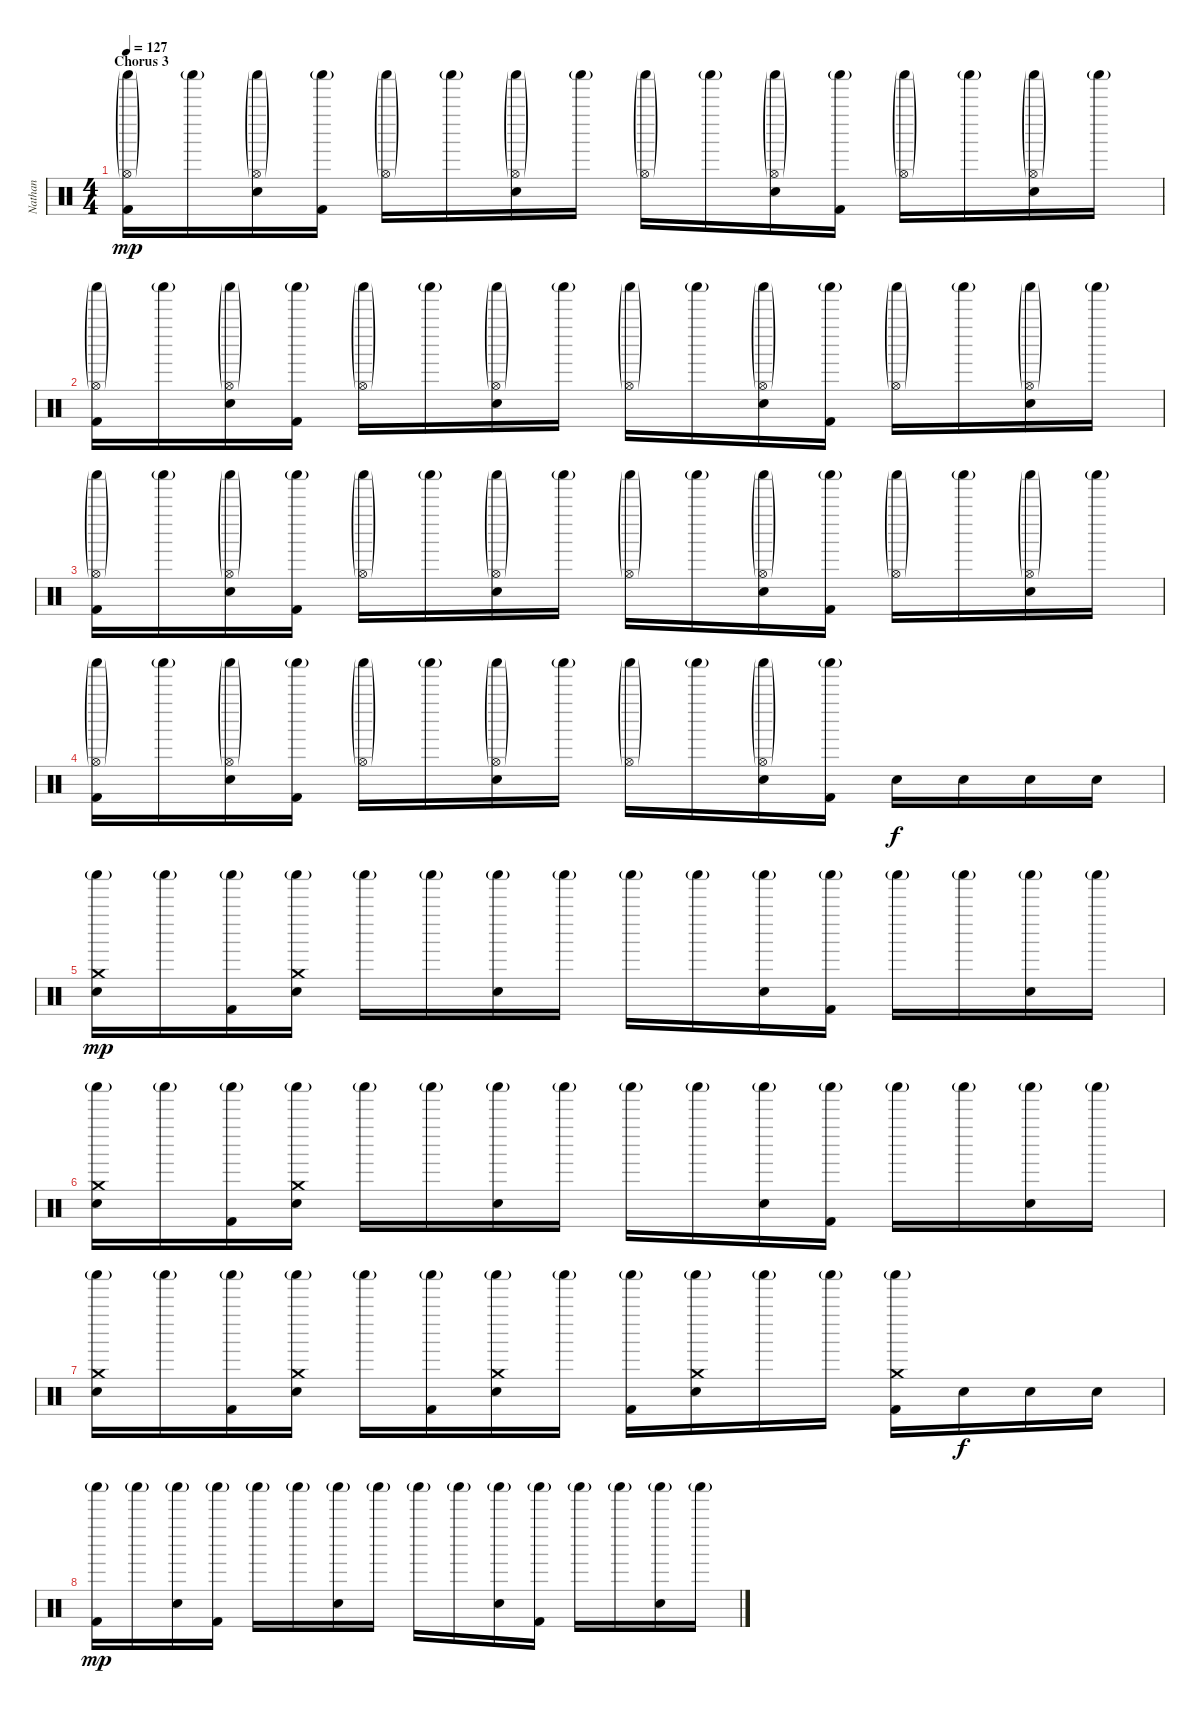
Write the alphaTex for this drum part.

\track ("Nathan" "Nathan") {instrument percussion}
\staff {score}
\articulation defaults
\ts (4 4)
\section ("" "Chorus 3")
\tempo 127
\clef neutral
\ks c
("Shaker (hit)"{g} "Hi-Hat (open)"{g} "Kick (hit) 2").16{dy mp} "Shaker (hit)"{g}.16 ("Shaker (hit)"{g} "Hi-Hat (open)"{g} "Electric Snare (hit)").16 ("Shaker (hit)"{g} "Kick (hit) 2").16 ("Shaker (hit)"{g} "Hi-Hat (open)"{g}).16 "Shaker (hit)"{g}.16 ("Shaker (hit)"{g} "Hi-Hat (open)"{g} "Electric Snare (hit)").16 "Shaker (hit)"{g}.16 ("Shaker (hit)"{g} "Hi-Hat (open)"{g}).16 "Shaker (hit)"{g}.16 ("Shaker (hit)"{g} "Hi-Hat (open)"{g} "Electric Snare (hit)").16 ("Shaker (hit)"{g} "Kick (hit) 2").16 ("Shaker (hit)"{g} "Hi-Hat (open)"{g}).16 "Shaker (hit)"{g}.16 ("Shaker (hit)"{g} "Hi-Hat (open)"{g} "Electric Snare (hit)").16 "Shaker (hit)"{g}.16 |
("Shaker (hit)"{g} "Hi-Hat (open)"{g} "Kick (hit) 2").16 "Shaker (hit)"{g}.16 ("Shaker (hit)"{g} "Hi-Hat (open)"{g} "Electric Snare (hit)").16 ("Shaker (hit)"{g} "Kick (hit) 2").16 ("Shaker (hit)"{g} "Hi-Hat (open)"{g}).16 "Shaker (hit)"{g}.16 ("Shaker (hit)"{g} "Hi-Hat (open)"{g} "Electric Snare (hit)").16 "Shaker (hit)"{g}.16 ("Shaker (hit)"{g} "Hi-Hat (open)"{g}).16 "Shaker (hit)"{g}.16 ("Shaker (hit)"{g} "Hi-Hat (open)"{g} "Electric Snare (hit)").16 ("Shaker (hit)"{g} "Kick (hit) 2").16 ("Shaker (hit)"{g} "Hi-Hat (open)"{g}).16 "Shaker (hit)"{g}.16 ("Shaker (hit)"{g} "Hi-Hat (open)"{g} "Electric Snare (hit)").16 "Shaker (hit)"{g}.16 |
("Shaker (hit)"{g} "Hi-Hat (open)"{g} "Kick (hit) 2").16 "Shaker (hit)"{g}.16 ("Shaker (hit)"{g} "Hi-Hat (open)"{g} "Electric Snare (hit)").16 ("Shaker (hit)"{g} "Kick (hit) 2").16 ("Shaker (hit)"{g} "Hi-Hat (open)"{g}).16 "Shaker (hit)"{g}.16 ("Shaker (hit)"{g} "Hi-Hat (open)"{g} "Electric Snare (hit)").16 "Shaker (hit)"{g}.16 ("Shaker (hit)"{g} "Hi-Hat (open)"{g}).16 "Shaker (hit)"{g}.16 ("Shaker (hit)"{g} "Hi-Hat (open)"{g} "Electric Snare (hit)").16 ("Shaker (hit)"{g} "Kick (hit) 2").16 ("Shaker (hit)"{g} "Hi-Hat (open)"{g}).16 "Shaker (hit)"{g}.16 ("Shaker (hit)"{g} "Hi-Hat (open)"{g} "Electric Snare (hit)").16 "Shaker (hit)"{g}.16 |
("Shaker (hit)"{g} "Hi-Hat (open)"{g} "Kick (hit) 2").16 "Shaker (hit)"{g}.16 ("Shaker (hit)"{g} "Hi-Hat (open)"{g} "Electric Snare (hit)").16 ("Shaker (hit)"{g} "Kick (hit) 2").16 ("Shaker (hit)"{g} "Hi-Hat (open)"{g}).16 "Shaker (hit)"{g}.16 ("Shaker (hit)"{g} "Hi-Hat (open)"{g} "Electric Snare (hit)").16 "Shaker (hit)"{g}.16 ("Shaker (hit)"{g} "Hi-Hat (open)"{g}).16 "Shaker (hit)"{g}.16 ("Shaker (hit)"{g} "Hi-Hat (open)"{g} "Electric Snare (hit)").16 ("Shaker (hit)"{g} "Kick (hit) 2").16 "Electric Snare (hit)".16{dy f} "Electric Snare (hit)".16 "Electric Snare (hit)".16 "Electric Snare (hit)".16 |
("Crash medium (hit)" "Shaker (hit)"{g} "Electric Snare (hit)").16{dy mp} "Shaker (hit)"{g}.16 ("Shaker (hit)"{g} "Kick (hit) 2").16 ("Crash medium (hit)" "Shaker (hit)"{g} "Electric Snare (hit)").16 "Shaker (hit)"{g}.16 "Shaker (hit)"{g}.16 ("Shaker (hit)"{g} "Electric Snare (hit)").16 "Shaker (hit)"{g}.16 "Shaker (hit)"{g}.16 "Shaker (hit)"{g}.16 ("Shaker (hit)"{g} "Electric Snare (hit)").16 ("Shaker (hit)"{g} "Kick (hit) 2").16 "Shaker (hit)"{g}.16 "Shaker (hit)"{g}.16 ("Shaker (hit)"{g} "Electric Snare (hit)").16 "Shaker (hit)"{g}.16 |
("Crash medium (hit)" "Shaker (hit)"{g} "Electric Snare (hit)").16 "Shaker (hit)"{g}.16 ("Shaker (hit)"{g} "Kick (hit) 2").16 ("Crash medium (hit)" "Shaker (hit)"{g} "Electric Snare (hit)").16 "Shaker (hit)"{g}.16 "Shaker (hit)"{g}.16 ("Shaker (hit)"{g} "Electric Snare (hit)").16 "Shaker (hit)"{g}.16 "Shaker (hit)"{g}.16 "Shaker (hit)"{g}.16 ("Shaker (hit)"{g} "Electric Snare (hit)").16 ("Shaker (hit)"{g} "Kick (hit) 2").16 "Shaker (hit)"{g}.16 "Shaker (hit)"{g}.16 ("Shaker (hit)"{g} "Electric Snare (hit)").16 "Shaker (hit)"{g}.16 |
("Crash medium (hit)" "Shaker (hit)"{g} "Electric Snare (hit)").16 "Shaker (hit)"{g}.16 ("Shaker (hit)"{g} "Kick (hit) 2").16 ("Crash medium (hit)" "Shaker (hit)"{g} "Electric Snare (hit)").16 "Shaker (hit)"{g}.16 ("Shaker (hit)"{g} "Kick (hit) 2").16 ("Crash medium (hit)" "Shaker (hit)"{g} "Electric Snare (hit)").16 "Shaker (hit)"{g}.16 ("Shaker (hit)"{g} "Kick (hit) 2").16 ("Crash medium (hit)" "Shaker (hit)"{g} "Electric Snare (hit)").16 "Shaker (hit)"{g}.16 "Shaker (hit)"{g}.16 ("Crash medium (hit)" "Shaker (hit)"{g} "Kick (hit) 2").16 "Electric Snare (hit)".16{dy f} "Electric Snare (hit)".16 "Electric Snare (hit)".16 |
("Shaker (hit)"{g} "Kick (hit) 2").16{dy mp} "Shaker (hit)"{g}.16 ("Shaker (hit)"{g} "Electric Snare (hit)").16 ("Shaker (hit)"{g} "Kick (hit) 2").16 "Shaker (hit)"{g}.16 "Shaker (hit)"{g}.16 ("Shaker (hit)"{g} "Electric Snare (hit)").16 "Shaker (hit)"{g}.16 "Shaker (hit)"{g}.16 "Shaker (hit)"{g}.16 ("Shaker (hit)"{g} "Electric Snare (hit)").16 ("Shaker (hit)"{g} "Kick (hit) 2").16 "Shaker (hit)"{g}.16 "Shaker (hit)"{g}.16 ("Shaker (hit)"{g} "Electric Snare (hit)").16 "Shaker (hit)"{g}.16
